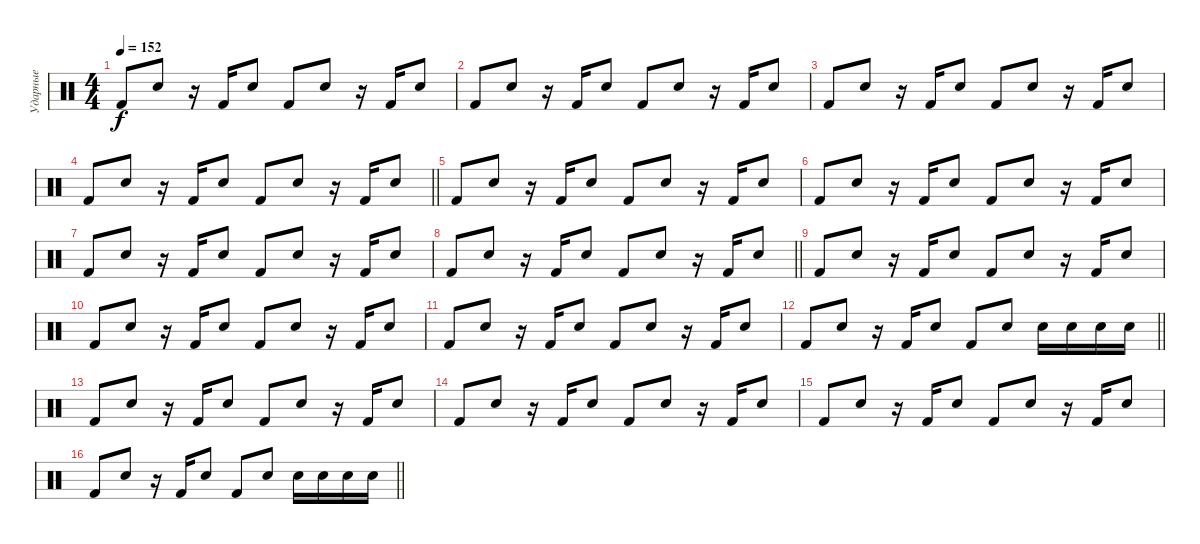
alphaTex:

\track ("Ударные" "Ударные") {instrument percussion}
\staff {score}
\articulation defaults
\ts (4 4)
\tempo 152
\clef neutral
\ks c "Kick (hit) 2".8{dy f} "Snare (hit) 2".8
r.16 "Kick (hit) 2".16 "Snare (hit) 2".8 "Kick (hit) 2".8 "Snare (hit) 2".8 r.16 "Kick (hit) 2".16 "Snare (hit) 2".8 |
"Kick (hit) 2".8 "Snare (hit) 2".8 r.16 "Kick (hit) 2".16 "Snare (hit) 2".8 "Kick (hit) 2".8 "Snare (hit) 2".8 r.16 "Kick (hit) 2".16 "Snare (hit) 2".8 |
"Kick (hit) 2".8 "Snare (hit) 2".8 r.16 "Kick (hit) 2".16 "Snare (hit) 2".8 "Kick (hit) 2".8 "Snare (hit) 2".8 r.16 "Kick (hit) 2".16 "Snare (hit) 2".8 |
\barLineRight lightlight "Kick (hit) 2".8 "Snare (hit) 2".8
r.16 "Kick (hit) 2".16 "Snare (hit) 2".8 "Kick (hit) 2".8 "Snare (hit) 2".8 r.16 "Kick (hit) 2".16 "Snare (hit) 2".8 |
"Kick (hit) 2".8 "Snare (hit) 2".8 r.16 "Kick (hit) 2".16 "Snare (hit) 2".8 "Kick (hit) 2".8 "Snare (hit) 2".8 r.16 "Kick (hit) 2".16 "Snare (hit) 2".8 |
"Kick (hit) 2".8 "Snare (hit) 2".8 r.16 "Kick (hit) 2".16 "Snare (hit) 2".8 "Kick (hit) 2".8 "Snare (hit) 2".8 r.16 "Kick (hit) 2".16 "Snare (hit) 2".8 |
"Kick (hit) 2".8 "Snare (hit) 2".8 r.16 "Kick (hit) 2".16 "Snare (hit) 2".8 "Kick (hit) 2".8 "Snare (hit) 2".8 r.16 "Kick (hit) 2".16 "Snare (hit) 2".8 |
\barLineRight lightlight "Kick (hit) 2".8 "Snare (hit) 2".8
r.16 "Kick (hit) 2".16 "Snare (hit) 2".8 "Kick (hit) 2".8 "Snare (hit) 2".8 r.16 "Kick (hit) 2".16 "Snare (hit) 2".8 |
"Kick (hit) 2".8 "Snare (hit) 2".8 r.16 "Kick (hit) 2".16 "Snare (hit) 2".8 "Kick (hit) 2".8 "Snare (hit) 2".8 r.16 "Kick (hit) 2".16 "Snare (hit) 2".8 |
"Kick (hit) 2".8 "Snare (hit) 2".8 r.16 "Kick (hit) 2".16 "Snare (hit) 2".8 "Kick (hit) 2".8 "Snare (hit) 2".8 r.16 "Kick (hit) 2".16 "Snare (hit) 2".8 |
"Kick (hit) 2".8 "Snare (hit) 2".8 r.16 "Kick (hit) 2".16 "Snare (hit) 2".8 "Kick (hit) 2".8 "Snare (hit) 2".8 r.16 "Kick (hit) 2".16 "Snare (hit) 2".8 |
\barLineRight lightlight "Kick (hit) 2".8 "Snare (hit) 2".8
r.16 "Kick (hit) 2".16 "Snare (hit) 2".8 "Kick (hit) 2".8 "Snare (hit) 2".8 "Snare (hit) 2".16 "Snare (hit) 2".16 "Snare (hit) 2".16 "Snare (hit) 2".16 |
"Kick (hit) 2".8 "Snare (hit) 2".8 r.16 "Kick (hit) 2".16 "Snare (hit) 2".8 "Kick (hit) 2".8 "Snare (hit) 2".8 r.16 "Kick (hit) 2".16 "Snare (hit) 2".8 |
"Kick (hit) 2".8 "Snare (hit) 2".8 r.16 "Kick (hit) 2".16 "Snare (hit) 2".8 "Kick (hit) 2".8 "Snare (hit) 2".8 r.16 "Kick (hit) 2".16 "Snare (hit) 2".8 |
"Kick (hit) 2".8 "Snare (hit) 2".8 r.16 "Kick (hit) 2".16 "Snare (hit) 2".8 "Kick (hit) 2".8 "Snare (hit) 2".8 r.16 "Kick (hit) 2".16 "Snare (hit) 2".8 |
\barLineRight lightlight "Kick (hit) 2".8 "Snare (hit) 2".8
r.16 "Kick (hit) 2".16 "Snare (hit) 2".8 "Kick (hit) 2".8 "Snare (hit) 2".8 "Snare (hit) 2".16 "Snare (hit) 2".16 "Snare (hit) 2".16 "Snare (hit) 2".16
